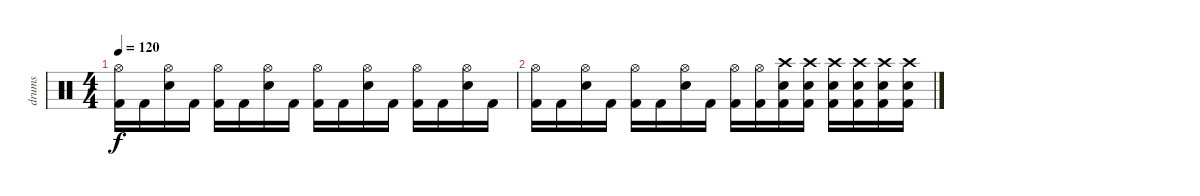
\track ("drums" "drums") {instrument percussion}
\staff {score}
\articulation defaults
\ts (4 4)
\tempo 120
\clef neutral
\ks c
("Hi-Hat (open)" "Kick (hit) 2").16{dy f} "Kick (hit) 2".16 ("Hi-Hat (open)" "Electric Snare (hit)").16 "Kick (hit) 2".16 ("Hi-Hat (open)" "Kick (hit) 2").16 "Kick (hit) 2".16 ("Hi-Hat (open)" "Electric Snare (hit)").16 "Kick (hit) 2".16 ("Hi-Hat (open)" "Kick (hit) 2").16 "Kick (hit) 2".16 ("Hi-Hat (open)" "Electric Snare (hit)").16 "Kick (hit) 2".16 ("Hi-Hat (open)" "Kick (hit) 2").16 "Kick (hit) 2".16 ("Hi-Hat (open)" "Electric Snare (hit)").16 "Kick (hit) 2".16 |
("Hi-Hat (open)" "Kick (hit) 2").16 "Kick (hit) 2".16 ("Hi-Hat (open)" "Electric Snare (hit)").16 "Kick (hit) 2".16 ("Hi-Hat (open)" "Kick (hit) 2").16 "Kick (hit) 2".16 ("Hi-Hat (open)" "Electric Snare (hit)").16 "Kick (hit) 2".16 ("Hi-Hat (open)" "Kick (hit) 2").16 ("Hi-Hat (open)" "Kick (hit) 2").16 ("Crash high (hit)" "Kick (hit) 2" "Electric Snare (hit)").16 ("Crash high (hit)" "Kick (hit) 2" "Electric Snare (hit)").16 ("Crash high (hit)" "Kick (hit) 2" "Electric Snare (hit)").16 ("Crash high (hit)" "Kick (hit) 2" "Electric Snare (hit)").16 ("Crash high (hit)" "Kick (hit) 2" "Electric Snare (hit)").16 ("Crash high (hit)" "Kick (hit) 2" "Electric Snare (hit)").16
